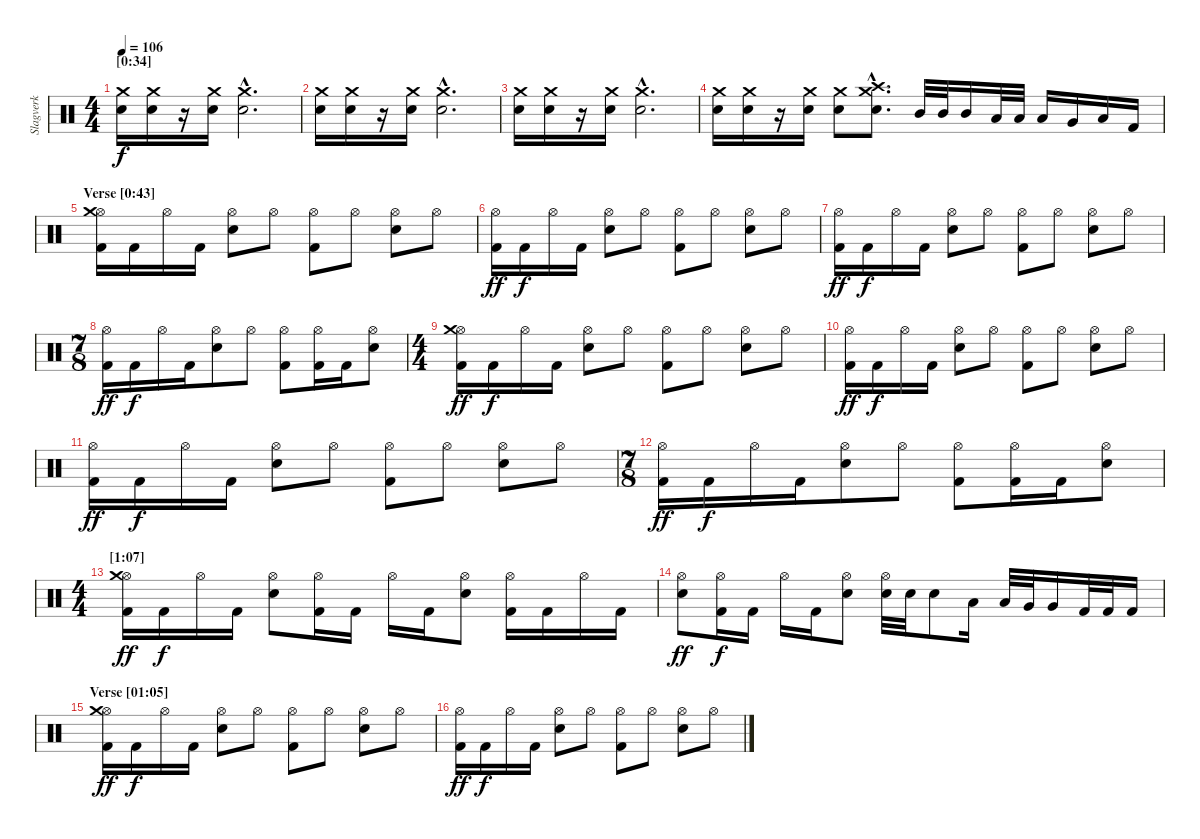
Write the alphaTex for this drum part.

\track ("Slagverk" "Slagverk") {instrument percussion}
\staff {score}
\articulation defaults
\ts (4 4)
\section ("" "[0:34]")
\tempo 106
\clef neutral
\ks c
("Crash medium (hit)" "Electric Snare (hit)").16{dy f} ("Crash medium (hit)" "Electric Snare (hit)").16 r.16 ("Crash medium (hit)" "Electric Snare (hit)").16 ("Crash medium (hit)"{hac} "Electric Snare (hit)"{hac}).2{d} |
("Crash medium (hit)" "Electric Snare (hit)").16 ("Crash medium (hit)" "Electric Snare (hit)").16 r.16 ("Crash medium (hit)" "Electric Snare (hit)").16 ("Crash medium (hit)"{hac} "Electric Snare (hit)"{hac}).2{d} |
("Crash medium (hit)" "Electric Snare (hit)").16 ("Crash medium (hit)" "Electric Snare (hit)").16 r.16 ("Crash medium (hit)" "Electric Snare (hit)").16 ("Crash medium (hit)"{hac} "Electric Snare (hit)"{hac}).2{d} |
("Crash medium (hit)" "Electric Snare (hit)").16 ("Crash medium (hit)" "Electric Snare (hit)").16 r.16 ("Crash medium (hit)" "Electric Snare (hit)").16 ("Crash medium (hit)" "Electric Snare (hit)").8 ("Crash high (hit)"{hac} "Crash medium (hit)"{hac} "Electric Snare (hit)"{hac}).8{d} "Mid Tom (hit)".32 "Mid Tom (hit)".32 "Mid Tom (hit)".16 "Low Tom (hit)".32 "Low Tom (hit)".32 "Low Tom (hit)".16 "Very Low Tom (hit)".16 "Low Floor Tom (hit)".16 "Kick (hit) 2".16 |
\section ("" "Verse [0:43]")
("Hi-Hat (open)" "Crash medium (hit)" "Kick (hit) 2").16 "Kick (hit) 2".16 "Hi-Hat (open)".16 "Kick (hit) 2".16 ("Hi-Hat (open)" "Electric Snare (hit)").8 "Hi-Hat (open)".8 ("Hi-Hat (open)" "Kick (hit) 2").8 "Hi-Hat (open)".8 ("Hi-Hat (open)" "Electric Snare (hit)").8 "Hi-Hat (open)".8 |
("Hi-Hat (open)" "Kick (hit) 2").16{dy ff} "Kick (hit) 2".16{dy f} "Hi-Hat (open)".16 "Kick (hit) 2".16 ("Hi-Hat (open)" "Electric Snare (hit)").8 "Hi-Hat (open)".8 ("Hi-Hat (open)" "Kick (hit) 2").8 "Hi-Hat (open)".8 ("Hi-Hat (open)" "Electric Snare (hit)").8 "Hi-Hat (open)".8 |
("Hi-Hat (open)" "Kick (hit) 2").16{dy ff} "Kick (hit) 2".16{dy f} "Hi-Hat (open)".16 "Kick (hit) 2".16 ("Hi-Hat (open)" "Electric Snare (hit)").8 "Hi-Hat (open)".8 ("Hi-Hat (open)" "Kick (hit) 2").8 "Hi-Hat (open)".8 ("Hi-Hat (open)" "Electric Snare (hit)").8 "Hi-Hat (open)".8 |
\ts (7 8)
("Hi-Hat (open)" "Kick (hit) 2").16{dy ff} "Kick (hit) 2".16{dy f} "Hi-Hat (open)".16 "Kick (hit) 2".16 ("Hi-Hat (open)" "Electric Snare (hit)").8 "Hi-Hat (open)".8 ("Hi-Hat (open)" "Kick (hit) 2").8 ("Hi-Hat (open)" "Kick (hit) 2").16 "Kick (hit) 2".16 ("Hi-Hat (open)" "Electric Snare (hit)").8 |
\ts (4 4)
\section ("" "")
("Hi-Hat (open)" "Crash medium (hit)" "Kick (hit) 2").16{dy ff} "Kick (hit) 2".16{dy f} "Hi-Hat (open)".16 "Kick (hit) 2".16 ("Hi-Hat (open)" "Electric Snare (hit)").8 "Hi-Hat (open)".8 ("Hi-Hat (open)" "Kick (hit) 2").8 "Hi-Hat (open)".8 ("Hi-Hat (open)" "Electric Snare (hit)").8 "Hi-Hat (open)".8 |
("Hi-Hat (open)" "Kick (hit) 2").16{dy ff} "Kick (hit) 2".16{dy f} "Hi-Hat (open)".16 "Kick (hit) 2".16 ("Hi-Hat (open)" "Electric Snare (hit)").8 "Hi-Hat (open)".8 ("Hi-Hat (open)" "Kick (hit) 2").8 "Hi-Hat (open)".8 ("Hi-Hat (open)" "Electric Snare (hit)").8 "Hi-Hat (open)".8 |
("Hi-Hat (open)" "Kick (hit) 2").16{dy ff} "Kick (hit) 2".16{dy f} "Hi-Hat (open)".16 "Kick (hit) 2".16 ("Hi-Hat (open)" "Electric Snare (hit)").8 "Hi-Hat (open)".8 ("Hi-Hat (open)" "Kick (hit) 2").8 "Hi-Hat (open)".8 ("Hi-Hat (open)" "Electric Snare (hit)").8 "Hi-Hat (open)".8 |
\ts (7 8)
("Hi-Hat (open)" "Kick (hit) 2").16{dy ff} "Kick (hit) 2".16{dy f} "Hi-Hat (open)".16 "Kick (hit) 2".16 ("Hi-Hat (open)" "Electric Snare (hit)").8 "Hi-Hat (open)".8 ("Hi-Hat (open)" "Kick (hit) 2").8 ("Hi-Hat (open)" "Kick (hit) 2").16 "Kick (hit) 2".16 ("Hi-Hat (open)" "Electric Snare (hit)").8 |
\ts (4 4)
\section ("" "[1:07]")
("Hi-Hat (open)" "Crash medium (hit)" "Kick (hit) 2").16{dy ff} "Kick (hit) 2".16{dy f} "Hi-Hat (open)".16 "Kick (hit) 2".16 ("Hi-Hat (open)" "Electric Snare (hit)").8 ("Hi-Hat (open)" "Kick (hit) 2").16 "Kick (hit) 2".16 "Hi-Hat (open)".16 "Kick (hit) 2".16 ("Hi-Hat (open)" "Electric Snare (hit)").8 ("Hi-Hat (open)" "Kick (hit) 2").16 "Kick (hit) 2".16 "Hi-Hat (open)".16 "Kick (hit) 2".16 |
("Hi-Hat (open)" "Electric Snare (hit)").8{dy ff} ("Hi-Hat (open)" "Kick (hit) 2").16{dy f} "Kick (hit) 2".16 "Hi-Hat (open)".16 "Kick (hit) 2".16 ("Hi-Hat (open)" "Electric Snare (hit)").8 ("Hi-Hat (open)" "Electric Snare (hit)").32 "Electric Snare (hit)".32 "Electric Snare (hit)".8 "Low Tom (hit)".16 "Low Tom (hit)".32 "Very Low Tom (hit)".32 "Very Low Tom (hit)".16 "Kick (hit) 2".32 "Kick (hit) 2".32 "Kick (hit) 2".16 |
\section ("" "Verse [01:05]")
("Hi-Hat (open)" "Crash medium (hit)" "Kick (hit) 2").16{dy ff} "Kick (hit) 2".16{dy f} "Hi-Hat (open)".16 "Kick (hit) 2".16 ("Hi-Hat (open)" "Electric Snare (hit)").8 "Hi-Hat (open)".8 ("Hi-Hat (open)" "Kick (hit) 2").8 "Hi-Hat (open)".8 ("Hi-Hat (open)" "Electric Snare (hit)").8 "Hi-Hat (open)".8 |
("Hi-Hat (open)" "Kick (hit) 2").16{dy ff} "Kick (hit) 2".16{dy f} "Hi-Hat (open)".16 "Kick (hit) 2".16 ("Hi-Hat (open)" "Electric Snare (hit)").8 "Hi-Hat (open)".8 ("Hi-Hat (open)" "Kick (hit) 2").8 "Hi-Hat (open)".8 ("Hi-Hat (open)" "Electric Snare (hit)").8 "Hi-Hat (open)".8
